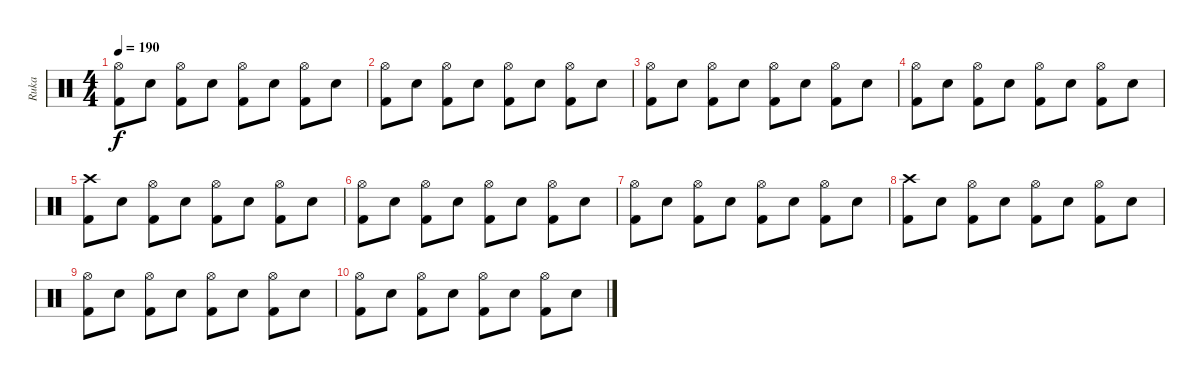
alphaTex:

\track ("Ruka" "Ruka") {instrument percussion}
\staff {score}
\articulation defaults
\ts (4 4)
\tempo 190
\clef neutral
\ks c
("Hi-Hat (open)" "Kick (hit) 2").8{dy f} "Electric Snare (hit)".8 ("Hi-Hat (open)" "Kick (hit) 2").8 "Electric Snare (hit)".8 ("Hi-Hat (open)" "Kick (hit) 2").8 "Electric Snare (hit)".8 ("Hi-Hat (open)" "Kick (hit) 2").8 "Electric Snare (hit)".8 |
("Hi-Hat (open)" "Kick (hit) 2").8 "Electric Snare (hit)".8 ("Hi-Hat (open)" "Kick (hit) 2").8 "Electric Snare (hit)".8 ("Hi-Hat (open)" "Kick (hit) 2").8 "Electric Snare (hit)".8 ("Hi-Hat (open)" "Kick (hit) 2").8 "Electric Snare (hit)".8 |
("Hi-Hat (open)" "Kick (hit) 2").8 "Electric Snare (hit)".8 ("Hi-Hat (open)" "Kick (hit) 2").8 "Electric Snare (hit)".8 ("Hi-Hat (open)" "Kick (hit) 2").8 "Electric Snare (hit)".8 ("Hi-Hat (open)" "Kick (hit) 2").8 "Electric Snare (hit)".8 |
("Hi-Hat (open)" "Kick (hit) 2").8 "Electric Snare (hit)".8 ("Hi-Hat (open)" "Kick (hit) 2").8 "Electric Snare (hit)".8 ("Hi-Hat (open)" "Kick (hit) 2").8 "Electric Snare (hit)".8 ("Hi-Hat (open)" "Kick (hit) 2").8 "Electric Snare (hit)".8 |
("Crash high (hit)" "Kick (hit) 2").8 "Electric Snare (hit)".8 ("Hi-Hat (open)" "Kick (hit) 2").8 "Electric Snare (hit)".8 ("Hi-Hat (open)" "Kick (hit) 2").8 "Electric Snare (hit)".8 ("Hi-Hat (open)" "Kick (hit) 2").8 "Electric Snare (hit)".8 |
("Hi-Hat (open)" "Kick (hit) 2").8 "Electric Snare (hit)".8 ("Hi-Hat (open)" "Kick (hit) 2").8 "Electric Snare (hit)".8 ("Hi-Hat (open)" "Kick (hit) 2").8 "Electric Snare (hit)".8 ("Hi-Hat (open)" "Kick (hit) 2").8 "Electric Snare (hit)".8 |
("Hi-Hat (open)" "Kick (hit) 2").8 "Electric Snare (hit)".8 ("Hi-Hat (open)" "Kick (hit) 2").8 "Electric Snare (hit)".8 ("Hi-Hat (open)" "Kick (hit) 2").8 "Electric Snare (hit)".8 ("Hi-Hat (open)" "Kick (hit) 2").8 "Electric Snare (hit)".8 |
("Crash high (hit)" "Kick (hit) 2").8 "Electric Snare (hit)".8 ("Hi-Hat (open)" "Kick (hit) 2").8 "Electric Snare (hit)".8 ("Hi-Hat (open)" "Kick (hit) 2").8 "Electric Snare (hit)".8 ("Hi-Hat (open)" "Kick (hit) 2").8 "Electric Snare (hit)".8 |
("Hi-Hat (open)" "Kick (hit) 2").8 "Electric Snare (hit)".8 ("Hi-Hat (open)" "Kick (hit) 2").8 "Electric Snare (hit)".8 ("Hi-Hat (open)" "Kick (hit) 2").8 "Electric Snare (hit)".8 ("Hi-Hat (open)" "Kick (hit) 2").8 "Electric Snare (hit)".8 |
("Hi-Hat (open)" "Kick (hit) 2").8 "Electric Snare (hit)".8 ("Hi-Hat (open)" "Kick (hit) 2").8 "Electric Snare (hit)".8 ("Hi-Hat (open)" "Kick (hit) 2").8 "Electric Snare (hit)".8 ("Hi-Hat (open)" "Kick (hit) 2").8 "Electric Snare (hit)".8
